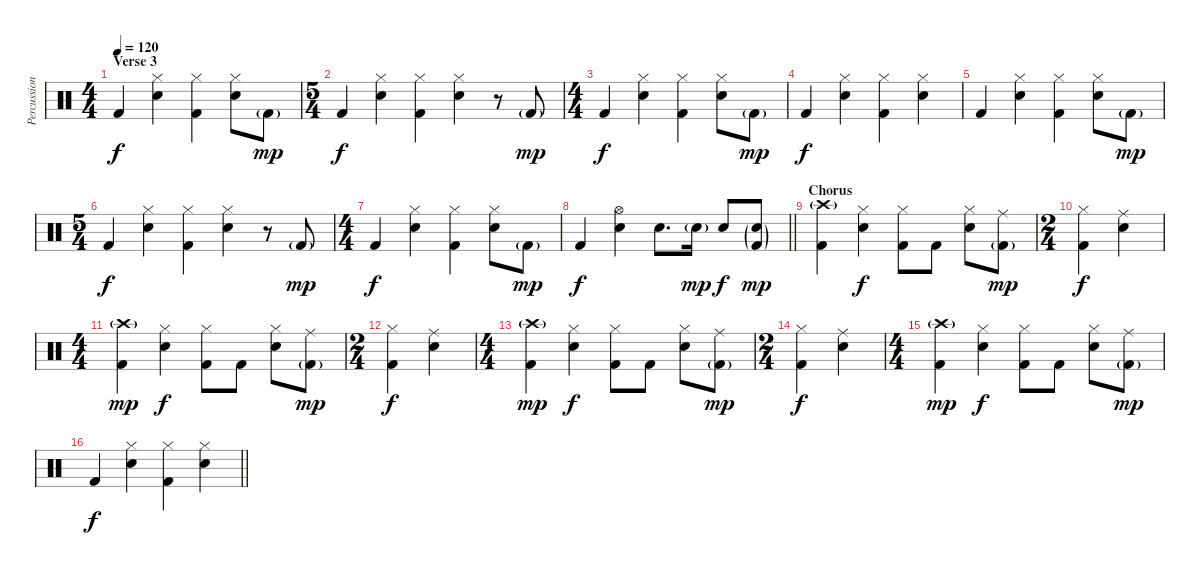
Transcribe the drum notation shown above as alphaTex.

\track ("Percussion" "Percussion") {instrument percussion}
\staff {score}
\articulation defaults
\ts (4 4)
\section ("" "Verse 3")
\tempo 120
\clef neutral
\ks c "Kick (hit) 2".4{dy f}
("Hi-Hat (closed)" "Snare (hit) 2").4 ("Hi-Hat (closed)" "Kick (hit) 2").4 ("Hi-Hat (closed)" "Snare (hit) 2").8 "Kick (hit) 2"{g}.8{dy mp} |
\ts (5 4)
"Kick (hit) 2".4{dy f} ("Hi-Hat (closed)" "Snare (hit) 2").4 ("Hi-Hat (closed)" "Kick (hit) 2").4 ("Hi-Hat (closed)" "Snare (hit) 2").4 r.8 "Kick (hit) 2"{g}.8{dy mp} |
\ts (4 4)
"Kick (hit) 2".4{dy f} ("Hi-Hat (closed)" "Snare (hit) 2").4 ("Hi-Hat (closed)" "Kick (hit) 2").4 ("Hi-Hat (closed)" "Snare (hit) 2").8 "Kick (hit) 2"{g}.8{dy mp} |
"Kick (hit) 2".4{dy f} ("Hi-Hat (closed)" "Snare (hit) 2").4 ("Hi-Hat (closed)" "Kick (hit) 2").4 ("Hi-Hat (closed)" "Snare (hit) 2").4 |
"Kick (hit) 2".4 ("Hi-Hat (closed)" "Snare (hit) 2").4 ("Hi-Hat (closed)" "Kick (hit) 2").4 ("Hi-Hat (closed)" "Snare (hit) 2").8 "Kick (hit) 2"{g}.8{dy mp} |
\ts (5 4)
"Kick (hit) 2".4{dy f} ("Hi-Hat (closed)" "Snare (hit) 2").4 ("Hi-Hat (closed)" "Kick (hit) 2").4 ("Hi-Hat (closed)" "Snare (hit) 2").4 r.8 "Kick (hit) 2"{g}.8{dy mp} |
\ts (4 4)
"Kick (hit) 2".4{dy f} ("Hi-Hat (closed)" "Snare (hit) 2").4 ("Hi-Hat (closed)" "Kick (hit) 2").4 ("Hi-Hat (closed)" "Snare (hit) 2").8 "Kick (hit) 2"{g}.8{dy mp} |
\barLineRight lightlight "Kick (hit) 2".4{dy f}
("Hi-Hat (open)" "Snare (hit) 2").4 "Snare (hit) 2".8{d} "Snare (hit) 2"{g}.16{dy mp} "Snare (hit) 2".8{dy f} ("Snare (hit) 2"{g} "Kick (hit) 2"{g}).8{dy mp} |
\section ("" "Chorus")
("Crash high (hit)"{g} "Kick (hit) 2").4 ("Hi-Hat (closed)" "Snare (hit) 2").4{dy f} ("Hi-Hat (closed)" "Kick (hit) 2").8 "Kick (hit) 2".8 ("Hi-Hat (closed)" "Snare (hit) 2").8 ("Ride (middle)" "Kick (hit) 2"{g}).8{dy mp} |
\ts (2 4)
("Hi-Hat (closed)" "Kick (hit) 2").4{dy f} ("Ride (middle)" "Snare (hit) 2").4 |
\ts (4 4)
("Crash high (hit)"{g} "Kick (hit) 2").4{dy mp} ("Hi-Hat (closed)" "Snare (hit) 2").4{dy f} ("Hi-Hat (closed)" "Kick (hit) 2").8 "Kick (hit) 2".8 ("Hi-Hat (closed)" "Snare (hit) 2").8 ("Ride (middle)" "Kick (hit) 2"{g}).8{dy mp} |
\ts (2 4)
("Hi-Hat (closed)" "Kick (hit) 2").4{dy f} ("Ride (middle)" "Snare (hit) 2").4 |
\ts (4 4)
("Crash high (hit)"{g} "Kick (hit) 2").4{dy mp} ("Hi-Hat (closed)" "Snare (hit) 2").4{dy f} ("Hi-Hat (closed)" "Kick (hit) 2").8 "Kick (hit) 2".8 ("Hi-Hat (closed)" "Snare (hit) 2").8 ("Ride (middle)" "Kick (hit) 2"{g}).8{dy mp} |
\ts (2 4)
("Hi-Hat (closed)" "Kick (hit) 2").4{dy f} ("Ride (middle)" "Snare (hit) 2").4 |
\ts (4 4)
("Crash high (hit)"{g} "Kick (hit) 2").4{dy mp} ("Hi-Hat (closed)" "Snare (hit) 2").4{dy f} ("Hi-Hat (closed)" "Kick (hit) 2").8 "Kick (hit) 2".8 ("Hi-Hat (closed)" "Snare (hit) 2").8 ("Ride (middle)" "Kick (hit) 2"{g}).8{dy mp} |
\barLineRight lightlight "Kick (hit) 2".4{dy f}
("Hi-Hat (closed)" "Snare (hit) 2").4 ("Hi-Hat (closed)" "Kick (hit) 2").4 ("Hi-Hat (closed)" "Snare (hit) 2").4
